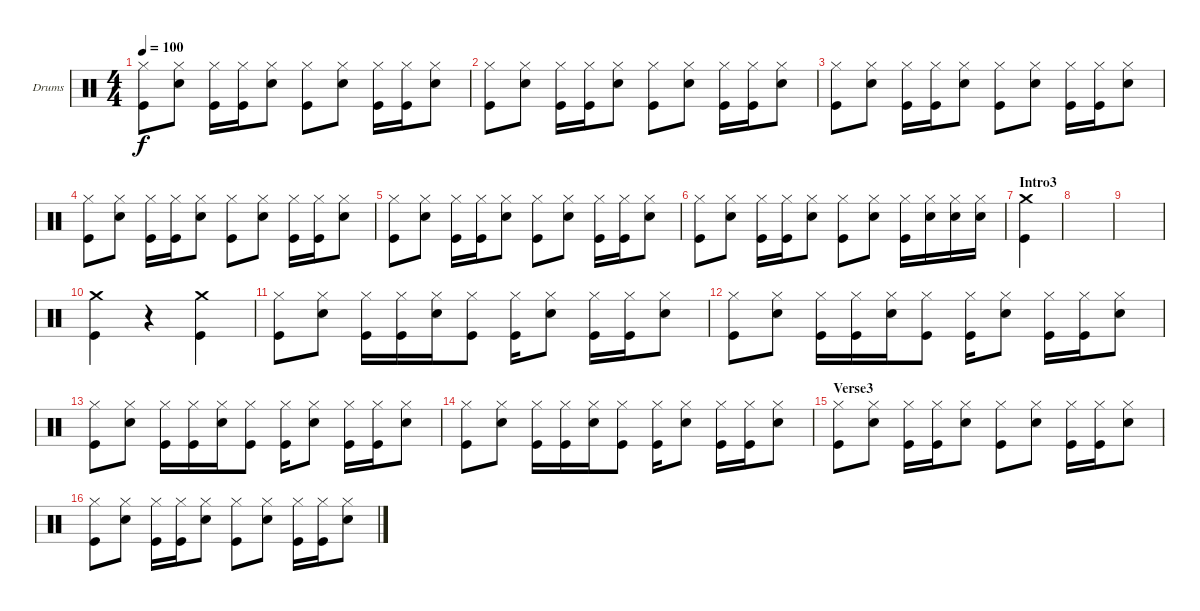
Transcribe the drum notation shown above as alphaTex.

\defaultSystemsLayout 4
\bracketExtendMode groupsimilarinstruments
\firstSystemTrackNameOrientation horizontal
\otherSystemsTrackNameOrientation horizontal
\track ("Drumkit" "Drums") {instrument percussion}
\staff {score}
\articulation defaults
\ts (4 4)
\tempo 100
\clef neutral
\scale
0.333333
\ks c
("Hi-Hat (closed)" "Kick (hit)").8{dy f} ("Hi-Hat (closed)" "Snare (hit) 2").8 ("Hi-Hat (closed)" "Kick (hit)").16 ("Hi-Hat (closed)" "Kick (hit)").16 ("Hi-Hat (closed)" "Snare (hit) 2").8 ("Hi-Hat (closed)" "Kick (hit)").8 ("Hi-Hat (closed)" "Snare (hit) 2").8 ("Hi-Hat (closed)" "Kick (hit)").16 ("Hi-Hat (closed)" "Kick (hit)").16 ("Hi-Hat (closed)" "Snare (hit) 2").8 |
\scale
0.333333 ("Hi-Hat (closed)" "Kick (hit)").8 ("Hi-Hat (closed)" "Snare (hit) 2").8 ("Hi-Hat (closed)" "Kick (hit)").16 ("Hi-Hat (closed)" "Kick (hit)").16 ("Hi-Hat (closed)" "Snare (hit) 2").8 ("Hi-Hat (closed)" "Kick (hit)").8 ("Hi-Hat (closed)" "Snare (hit) 2").8 ("Hi-Hat (closed)" "Kick (hit)").16 ("Hi-Hat (closed)" "Kick (hit)").16 ("Hi-Hat (closed)" "Snare (hit) 2").8 |
\scale
0.333333 ("Hi-Hat (closed)" "Kick (hit)").8 ("Hi-Hat (closed)" "Snare (hit) 2").8 ("Hi-Hat (closed)" "Kick (hit)").16 ("Hi-Hat (closed)" "Kick (hit)").16 ("Hi-Hat (closed)" "Snare (hit) 2").8 ("Hi-Hat (closed)" "Kick (hit)").8 ("Hi-Hat (closed)" "Snare (hit) 2").8 ("Hi-Hat (closed)" "Kick (hit)").16 ("Hi-Hat (closed)" "Kick (hit)").16 ("Hi-Hat (closed)" "Snare (hit) 2").8 |
\scale
0.333333 ("Hi-Hat (closed)" "Kick (hit)").8 ("Hi-Hat (closed)" "Snare (hit) 2").8 ("Hi-Hat (closed)" "Kick (hit)").16 ("Hi-Hat (closed)" "Kick (hit)").16 ("Hi-Hat (closed)" "Snare (hit) 2").8 ("Hi-Hat (closed)" "Kick (hit)").8 ("Hi-Hat (closed)" "Snare (hit) 2").8 ("Hi-Hat (closed)" "Kick (hit)").16 ("Hi-Hat (closed)" "Kick (hit)").16 ("Hi-Hat (closed)" "Snare (hit) 2").8 |
\scale
0.333333 ("Hi-Hat (closed)" "Kick (hit)").8 ("Hi-Hat (closed)" "Snare (hit) 2").8 ("Hi-Hat (closed)" "Kick (hit)").16 ("Hi-Hat (closed)" "Kick (hit)").16 ("Hi-Hat (closed)" "Snare (hit) 2").8 ("Hi-Hat (closed)" "Kick (hit)").8 ("Hi-Hat (closed)" "Snare (hit) 2").8 ("Hi-Hat (closed)" "Kick (hit)").16 ("Hi-Hat (closed)" "Kick (hit)").16 ("Hi-Hat (closed)" "Snare (hit) 2").8 |
\scale
0.333333 ("Hi-Hat (closed)" "Kick (hit)").8 ("Hi-Hat (closed)" "Snare (hit) 2").8 ("Hi-Hat (closed)" "Kick (hit)").16 ("Hi-Hat (closed)" "Kick (hit)").16 ("Hi-Hat (closed)" "Snare (hit) 2").8 ("Hi-Hat (closed)" "Kick (hit)").8 ("Hi-Hat (closed)" "Snare (hit) 2").8 ("Hi-Hat (closed)" "Kick (hit)").16 ("Hi-Hat (closed)" "Snare (hit) 2").16 ("Hi-Hat (closed)" "Snare (hit) 2").16 ("Hi-Hat (closed)" "Snare (hit) 2").16 |
\section ("" "Intro3")
\scale
0.333333 ("Crash medium (hit)" "Kick (hit)").4 |
\scale
0.333333 |
\scale
0.333333 |
\scale
0.333333 ("Crash medium (hit)" "Kick (hit)").4 r.4 ("Crash medium (hit)" "Kick (hit)").4 |
\scale
0.333333 ("Hi-Hat (closed)" "Kick (hit)").8 ("Hi-Hat (closed)" "Snare (hit) 2").8 ("Hi-Hat (closed)" "Kick (hit)").16 ("Hi-Hat (closed)" "Kick (hit)").16 ("Hi-Hat (closed)" "Snare (hit) 2").16 ("Hi-Hat (closed)" "Kick (hit)").8 ("Hi-Hat (closed)" "Kick (hit)").16 ("Hi-Hat (closed)" "Snare (hit) 2").8 ("Hi-Hat (closed)" "Kick (hit)").16 ("Hi-Hat (closed)" "Kick (hit)").16 ("Hi-Hat (closed)" "Snare (hit) 2").8 |
\scale
0.333333 ("Hi-Hat (closed)" "Kick (hit)").8 ("Hi-Hat (closed)" "Snare (hit) 2").8 ("Hi-Hat (closed)" "Kick (hit)").16 ("Hi-Hat (closed)" "Kick (hit)").16 ("Hi-Hat (closed)" "Snare (hit) 2").16 ("Hi-Hat (closed)" "Kick (hit)").8 ("Hi-Hat (closed)" "Kick (hit)").16 ("Hi-Hat (closed)" "Snare (hit) 2").8 ("Hi-Hat (closed)" "Kick (hit)").16 ("Hi-Hat (closed)" "Kick (hit)").16 ("Hi-Hat (closed)" "Snare (hit) 2").8 |
("Hi-Hat (closed)" "Kick (hit)").8 ("Hi-Hat (closed)" "Snare (hit) 2").8 ("Hi-Hat (closed)" "Kick (hit)").16 ("Hi-Hat (closed)" "Kick (hit)").16 ("Hi-Hat (closed)" "Snare (hit) 2").16 ("Hi-Hat (closed)" "Kick (hit)").8 ("Hi-Hat (closed)" "Kick (hit)").16 ("Hi-Hat (closed)" "Snare (hit) 2").8 ("Hi-Hat (closed)" "Kick (hit)").16 ("Hi-Hat (closed)" "Kick (hit)").16 ("Hi-Hat (closed)" "Snare (hit) 2").8 |
("Hi-Hat (closed)" "Kick (hit)").8 ("Hi-Hat (closed)" "Snare (hit) 2").8 ("Hi-Hat (closed)" "Kick (hit)").16 ("Hi-Hat (closed)" "Kick (hit)").16 ("Hi-Hat (closed)" "Snare (hit) 2").16 ("Hi-Hat (closed)" "Kick (hit)").8 ("Hi-Hat (closed)" "Kick (hit)").16 ("Hi-Hat (closed)" "Snare (hit) 2").8 ("Hi-Hat (closed)" "Kick (hit)").16 ("Hi-Hat (closed)" "Kick (hit)").16 ("Hi-Hat (closed)" "Snare (hit) 2").8 |
\section ("" "Verse3")
\scale
0.333333 ("Hi-Hat (closed)" "Kick (hit)").8 ("Hi-Hat (closed)" "Snare (hit) 2").8 ("Hi-Hat (closed)" "Kick (hit)").16 ("Hi-Hat (closed)" "Kick (hit)").16 ("Hi-Hat (closed)" "Snare (hit) 2").8 ("Hi-Hat (closed)" "Kick (hit)").8 ("Hi-Hat (closed)" "Snare (hit) 2").8 ("Hi-Hat (closed)" "Kick (hit)").16 ("Hi-Hat (closed)" "Kick (hit)").16 ("Hi-Hat (closed)" "Snare (hit) 2").8 |
\scale
0.333333 ("Hi-Hat (closed)" "Kick (hit)").8 ("Hi-Hat (closed)" "Snare (hit) 2").8 ("Hi-Hat (closed)" "Kick (hit)").16 ("Hi-Hat (closed)" "Kick (hit)").16 ("Hi-Hat (closed)" "Snare (hit) 2").8 ("Hi-Hat (closed)" "Kick (hit)").8 ("Hi-Hat (closed)" "Snare (hit) 2").8 ("Hi-Hat (closed)" "Kick (hit)").16 ("Hi-Hat (closed)" "Kick (hit)").16 ("Hi-Hat (closed)" "Snare (hit) 2").8
